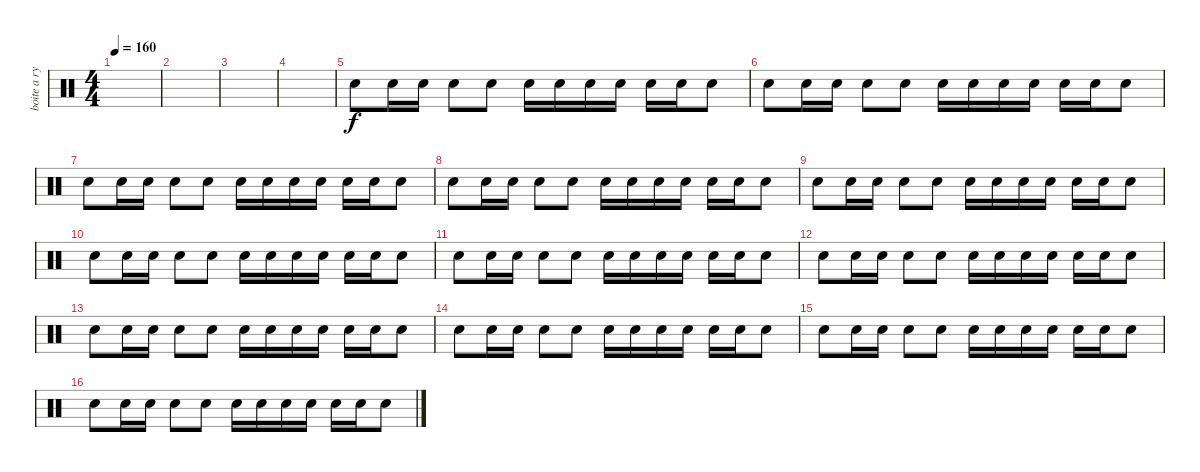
\track ("boite a rythme" "boite a ry") {instrument percussion}
\staff {score}
\articulation defaults
\ts (4 4)
\tempo 160
\clef neutral
\ks c
|
|
|
|
"Snare (hit) 2".8 "Snare (hit) 2".16 "Snare (hit) 2".16 "Snare (hit) 2".8 "Snare (hit) 2".8 "Snare (hit) 2".16 "Snare (hit) 2".16 "Snare (hit) 2".16 "Snare (hit) 2".16 "Snare (hit) 2".16 "Snare (hit) 2".16 "Snare (hit) 2".8 |
"Snare (hit) 2".8 "Snare (hit) 2".16 "Snare (hit) 2".16 "Snare (hit) 2".8 "Snare (hit) 2".8 "Snare (hit) 2".16 "Snare (hit) 2".16 "Snare (hit) 2".16 "Snare (hit) 2".16 "Snare (hit) 2".16 "Snare (hit) 2".16 "Snare (hit) 2".8 |
"Snare (hit) 2".8 "Snare (hit) 2".16 "Snare (hit) 2".16 "Snare (hit) 2".8 "Snare (hit) 2".8 "Snare (hit) 2".16 "Snare (hit) 2".16 "Snare (hit) 2".16 "Snare (hit) 2".16 "Snare (hit) 2".16 "Snare (hit) 2".16 "Snare (hit) 2".8 |
"Snare (hit) 2".8 "Snare (hit) 2".16 "Snare (hit) 2".16 "Snare (hit) 2".8 "Snare (hit) 2".8 "Snare (hit) 2".16 "Snare (hit) 2".16 "Snare (hit) 2".16 "Snare (hit) 2".16 "Snare (hit) 2".16 "Snare (hit) 2".16 "Snare (hit) 2".8 |
"Snare (hit) 2".8 "Snare (hit) 2".16 "Snare (hit) 2".16 "Snare (hit) 2".8 "Snare (hit) 2".8 "Snare (hit) 2".16 "Snare (hit) 2".16 "Snare (hit) 2".16 "Snare (hit) 2".16 "Snare (hit) 2".16 "Snare (hit) 2".16 "Snare (hit) 2".8 |
"Snare (hit) 2".8 "Snare (hit) 2".16 "Snare (hit) 2".16 "Snare (hit) 2".8 "Snare (hit) 2".8 "Snare (hit) 2".16 "Snare (hit) 2".16 "Snare (hit) 2".16 "Snare (hit) 2".16 "Snare (hit) 2".16 "Snare (hit) 2".16 "Snare (hit) 2".8 |
"Snare (hit) 2".8 "Snare (hit) 2".16 "Snare (hit) 2".16 "Snare (hit) 2".8 "Snare (hit) 2".8 "Snare (hit) 2".16 "Snare (hit) 2".16 "Snare (hit) 2".16 "Snare (hit) 2".16 "Snare (hit) 2".16 "Snare (hit) 2".16 "Snare (hit) 2".8 |
"Snare (hit) 2".8 "Snare (hit) 2".16 "Snare (hit) 2".16 "Snare (hit) 2".8 "Snare (hit) 2".8 "Snare (hit) 2".16 "Snare (hit) 2".16 "Snare (hit) 2".16 "Snare (hit) 2".16 "Snare (hit) 2".16 "Snare (hit) 2".16 "Snare (hit) 2".8 |
"Snare (hit) 2".8 "Snare (hit) 2".16 "Snare (hit) 2".16 "Snare (hit) 2".8 "Snare (hit) 2".8 "Snare (hit) 2".16 "Snare (hit) 2".16 "Snare (hit) 2".16 "Snare (hit) 2".16 "Snare (hit) 2".16 "Snare (hit) 2".16 "Snare (hit) 2".8 |
"Snare (hit) 2".8 "Snare (hit) 2".16 "Snare (hit) 2".16 "Snare (hit) 2".8 "Snare (hit) 2".8 "Snare (hit) 2".16 "Snare (hit) 2".16 "Snare (hit) 2".16 "Snare (hit) 2".16 "Snare (hit) 2".16 "Snare (hit) 2".16 "Snare (hit) 2".8 |
"Snare (hit) 2".8 "Snare (hit) 2".16 "Snare (hit) 2".16 "Snare (hit) 2".8 "Snare (hit) 2".8 "Snare (hit) 2".16 "Snare (hit) 2".16 "Snare (hit) 2".16 "Snare (hit) 2".16 "Snare (hit) 2".16 "Snare (hit) 2".16 "Snare (hit) 2".8 |
"Snare (hit) 2".8 "Snare (hit) 2".16 "Snare (hit) 2".16 "Snare (hit) 2".8 "Snare (hit) 2".8 "Snare (hit) 2".16 "Snare (hit) 2".16 "Snare (hit) 2".16 "Snare (hit) 2".16 "Snare (hit) 2".16 "Snare (hit) 2".16 "Snare (hit) 2".8
